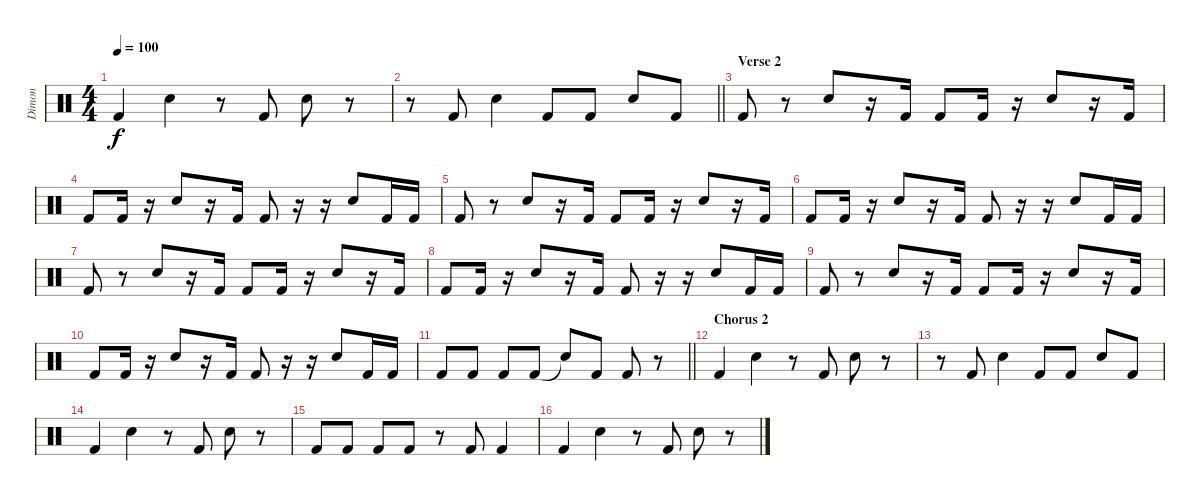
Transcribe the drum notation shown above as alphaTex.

\track ("Dimon" "Dimon") {instrument percussion}
\staff {score}
\articulation defaults
\ts (4 4)
\tempo 100
\clef neutral
\ks c "Kick (hit) 2".4{dy f} "Electric Snare (hit)".4
r.8 "Kick (hit) 2".8 "Electric Snare (hit)".8 r.8 |
\barLineRight lightlight
r.8 "Kick (hit) 2".8 "Electric Snare (hit)".4 "Kick (hit) 2".8 "Kick (hit) 2".8 "Electric Snare (hit)".8 "Kick (hit) 2".8 |
\section ("" "Verse 2")
"Kick (hit) 2".8 r.8 "Electric Snare (hit)".8 r.16 "Kick (hit) 2".16 "Kick (hit) 2".8 "Kick (hit) 2".16 r.16 "Electric Snare (hit)".8 r.16 "Kick (hit) 2".16 |
"Kick (hit) 2".8 "Kick (hit) 2".16 r.16 "Electric Snare (hit)".8 r.16 "Kick (hit) 2".16 "Kick (hit) 2".8 r.16 r.16 "Electric Snare (hit)".8 "Kick (hit) 2".16 "Kick (hit) 2".16 |
"Kick (hit) 2".8 r.8 "Electric Snare (hit)".8 r.16 "Kick (hit) 2".16 "Kick (hit) 2".8 "Kick (hit) 2".16 r.16 "Electric Snare (hit)".8 r.16 "Kick (hit) 2".16 |
"Kick (hit) 2".8 "Kick (hit) 2".16 r.16 "Electric Snare (hit)".8 r.16 "Kick (hit) 2".16 "Kick (hit) 2".8 r.16 r.16 "Electric Snare (hit)".8 "Kick (hit) 2".16 "Kick (hit) 2".16 |
"Kick (hit) 2".8 r.8 "Electric Snare (hit)".8 r.16 "Kick (hit) 2".16 "Kick (hit) 2".8 "Kick (hit) 2".16 r.16 "Electric Snare (hit)".8 r.16 "Kick (hit) 2".16 |
"Kick (hit) 2".8 "Kick (hit) 2".16 r.16 "Electric Snare (hit)".8 r.16 "Kick (hit) 2".16 "Kick (hit) 2".8 r.16 r.16 "Electric Snare (hit)".8 "Kick (hit) 2".16 "Kick (hit) 2".16 |
"Kick (hit) 2".8 r.8 "Electric Snare (hit)".8 r.16 "Kick (hit) 2".16 "Kick (hit) 2".8 "Kick (hit) 2".16 r.16 "Electric Snare (hit)".8 r.16 "Kick (hit) 2".16 |
"Kick (hit) 2".8 "Kick (hit) 2".16 r.16 "Electric Snare (hit)".8 r.16 "Kick (hit) 2".16 "Kick (hit) 2".8 r.16 r.16 "Electric Snare (hit)".8 "Kick (hit) 2".16 "Kick (hit) 2".16 |
\barLineRight lightlight "Kick (hit) 2".8 "Kick (hit) 2".8 "Kick (hit) 2".8 "Kick (hit) 2".8 "Snare (hit)"{t}.8 "Kick (hit) 2".8 "Kick (hit) 2".8
r.8 |
\section ("" "Chorus 2")
"Kick (hit) 2".4 "Electric Snare (hit)".4 r.8 "Kick (hit) 2".8 "Electric Snare (hit)".8 r.8 |
r.8 "Kick (hit) 2".8 "Electric Snare (hit)".4 "Kick (hit) 2".8 "Kick (hit) 2".8 "Electric Snare (hit)".8 "Kick (hit) 2".8 |
"Kick (hit) 2".4 "Electric Snare (hit)".4 r.8 "Kick (hit) 2".8 "Electric Snare (hit)".8 r.8 |
"Kick (hit) 2".8 "Kick (hit) 2".8 "Kick (hit) 2".8 "Kick (hit) 2".8 r.8 "Kick (hit) 2".8 "Kick (hit) 2".4 |
"Kick (hit) 2".4 "Electric Snare (hit)".4 r.8 "Kick (hit) 2".8 "Electric Snare (hit)".8 r.8
